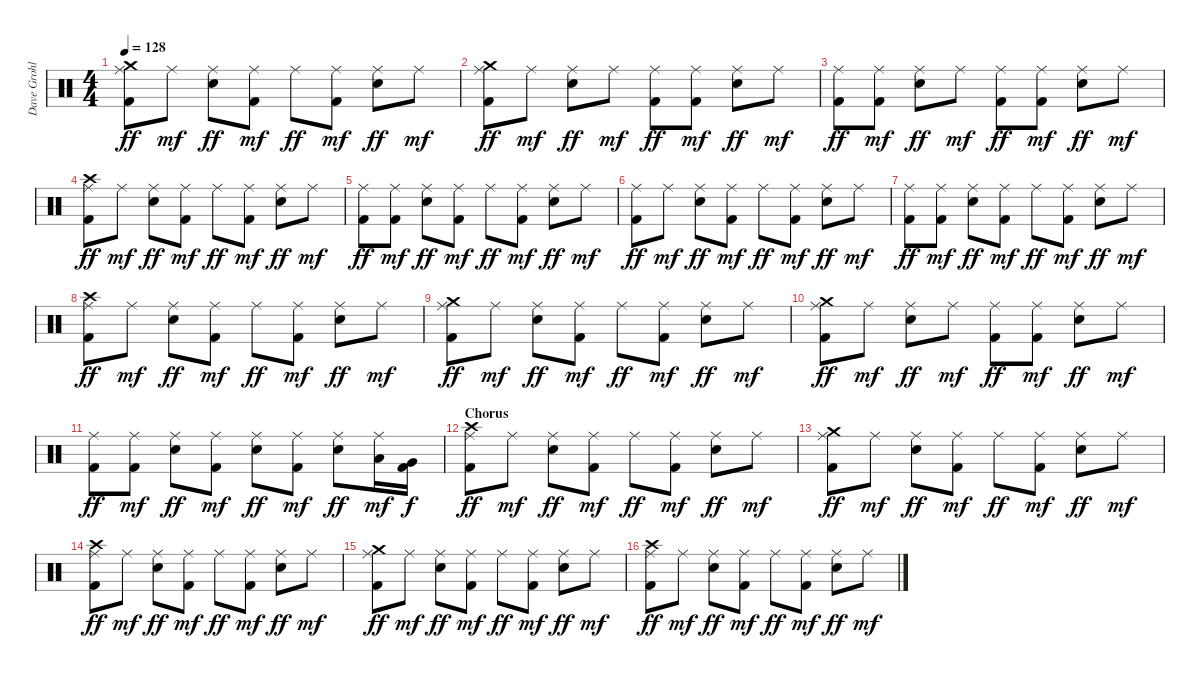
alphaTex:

\track ("Dave Grohl" "Dave Grohl") {instrument percussion}
\staff {score}
\articulation defaults
\ts (4 4)
\tempo 128
\clef neutral
\ks c
("Crash medium (hit)" "Ride (middle)" "Kick (hit) 2").8{dy ff} "Ride (middle)".8{dy mf} ("Ride (middle)" "Snare (hit) 2").8{dy ff} ("Ride (middle)" "Kick (hit) 2").8{dy mf} "Ride (middle)".8{dy ff} ("Ride (middle)" "Kick (hit) 2").8{dy mf} ("Ride (middle)" "Snare (hit) 2").8{dy ff} "Ride (middle)".8{dy mf} |
("Crash medium (hit)" "Ride (middle)" "Kick (hit) 2").8{dy ff} "Ride (middle)".8{dy mf} ("Ride (middle)" "Snare (hit) 2").8{dy ff} "Ride (middle)".8{dy mf} ("Ride (middle)" "Kick (hit) 2").8{dy ff} ("Ride (middle)" "Kick (hit) 2").8{dy mf} ("Ride (middle)" "Snare (hit) 2").8{dy ff} "Ride (middle)".8{dy mf} |
("Ride (middle)" "Kick (hit) 2").8{dy ff} ("Ride (middle)" "Kick (hit) 2").8{dy mf} ("Ride (middle)" "Snare (hit) 2").8{dy ff} "Ride (middle)".8{dy mf} ("Ride (middle)" "Kick (hit) 2").8{dy ff} ("Ride (middle)" "Kick (hit) 2").8{dy mf} ("Ride (middle)" "Snare (hit) 2").8{dy ff} "Ride (middle)".8{dy mf} |
("Crash high (hit)" "Ride (middle)" "Kick (hit) 2").8{dy ff} "Ride (middle)".8{dy mf} ("Ride (middle)" "Snare (hit) 2").8{dy ff} ("Ride (middle)" "Kick (hit) 2").8{dy mf} "Ride (middle)".8{dy ff} ("Ride (middle)" "Kick (hit) 2").8{dy mf} ("Ride (middle)" "Snare (hit) 2").8{dy ff} "Ride (middle)".8{dy mf} |
("Ride (middle)" "Kick (hit) 2").8{dy ff} ("Ride (middle)" "Kick (hit) 2").8{dy mf} ("Ride (middle)" "Snare (hit) 2").8{dy ff} ("Ride (middle)" "Kick (hit) 2").8{dy mf} "Ride (middle)".8{dy ff} ("Ride (middle)" "Kick (hit) 2").8{dy mf} ("Ride (middle)" "Snare (hit) 2").8{dy ff} "Ride (middle)".8{dy mf} |
("Ride (middle)" "Kick (hit) 2").8{dy ff} "Ride (middle)".8{dy mf} ("Ride (middle)" "Snare (hit) 2").8{dy ff} ("Ride (middle)" "Kick (hit) 2").8{dy mf} "Ride (middle)".8{dy ff} ("Ride (middle)" "Kick (hit) 2").8{dy mf} ("Ride (middle)" "Snare (hit) 2").8{dy ff} "Ride (middle)".8{dy mf} |
("Ride (middle)" "Kick (hit) 2").8{dy ff} ("Ride (middle)" "Kick (hit) 2").8{dy mf} ("Ride (middle)" "Snare (hit) 2").8{dy ff} ("Ride (middle)" "Kick (hit) 2").8{dy mf} "Ride (middle)".8{dy ff} ("Ride (middle)" "Kick (hit) 2").8{dy mf} ("Ride (middle)" "Snare (hit) 2").8{dy ff} "Ride (middle)".8{dy mf} |
("Crash high (hit)" "Ride (middle)" "Kick (hit) 2").8{dy ff} "Ride (middle)".8{dy mf} ("Ride (middle)" "Snare (hit) 2").8{dy ff} ("Ride (middle)" "Kick (hit) 2").8{dy mf} "Ride (middle)".8{dy ff} ("Ride (middle)" "Kick (hit) 2").8{dy mf} ("Ride (middle)" "Snare (hit) 2").8{dy ff} "Ride (middle)".8{dy mf} |
("Crash medium (hit)" "Ride (middle)" "Kick (hit) 2").8{dy ff} "Ride (middle)".8{dy mf} ("Ride (middle)" "Snare (hit) 2").8{dy ff} ("Ride (middle)" "Kick (hit) 2").8{dy mf} "Ride (middle)".8{dy ff} ("Ride (middle)" "Kick (hit) 2").8{dy mf} ("Ride (middle)" "Snare (hit) 2").8{dy ff} "Ride (middle)".8{dy mf} |
("Crash medium (hit)" "Ride (middle)" "Kick (hit) 2").8{dy ff} "Ride (middle)".8{dy mf} ("Ride (middle)" "Snare (hit) 2").8{dy ff} "Ride (middle)".8{dy mf} ("Ride (middle)" "Kick (hit) 2").8{dy ff} ("Ride (middle)" "Kick (hit) 2").8{dy mf} ("Ride (middle)" "Snare (hit) 2").8{dy ff} "Ride (middle)".8{dy mf} |
("Ride (middle)" "Kick (hit) 2").8{dy ff} ("Ride (middle)" "Kick (hit) 2").8{dy mf} ("Ride (middle)" "Snare (hit) 2").8{dy ff} ("Ride (middle)" "Kick (hit) 2").8{dy mf} ("Ride (middle)" "Snare (hit) 2").8{dy ff} ("Ride (middle)" "Kick (hit) 2").8{dy mf} ("Ride (middle)" "Snare (hit) 2").8{dy ff} ("Ride (middle)" "Low Tom (hit)").16{dy mf} ("Very Low Tom (hit)" "Kick (hit) 2").16{dy f} |
\section ("" "Chorus")
("Crash high (hit)" "Ride (middle)" "Kick (hit) 2").8{dy ff} "Ride (middle)".8{dy mf} ("Ride (middle)" "Snare (hit) 2").8{dy ff} ("Ride (middle)" "Kick (hit) 2").8{dy mf} "Ride (middle)".8{dy ff} ("Ride (middle)" "Kick (hit) 2").8{dy mf} ("Ride (middle)" "Snare (hit) 2").8{dy ff} "Ride (middle)".8{dy mf} |
("Crash medium (hit)" "Ride (middle)" "Kick (hit) 2").8{dy ff} "Ride (middle)".8{dy mf} ("Ride (middle)" "Snare (hit) 2").8{dy ff} ("Ride (middle)" "Kick (hit) 2").8{dy mf} "Ride (middle)".8{dy ff} ("Ride (middle)" "Kick (hit) 2").8{dy mf} ("Ride (middle)" "Snare (hit) 2").8{dy ff} "Ride (middle)".8{dy mf} |
("Crash high (hit)" "Ride (middle)" "Kick (hit) 2").8{dy ff} "Ride (middle)".8{dy mf} ("Ride (middle)" "Snare (hit) 2").8{dy ff} ("Ride (middle)" "Kick (hit) 2").8{dy mf} "Ride (middle)".8{dy ff} ("Ride (middle)" "Kick (hit) 2").8{dy mf} ("Ride (middle)" "Snare (hit) 2").8{dy ff} "Ride (middle)".8{dy mf} |
("Crash medium (hit)" "Ride (middle)" "Kick (hit) 2").8{dy ff} "Ride (middle)".8{dy mf} ("Ride (middle)" "Snare (hit) 2").8{dy ff} ("Ride (middle)" "Kick (hit) 2").8{dy mf} "Ride (middle)".8{dy ff} ("Ride (middle)" "Kick (hit) 2").8{dy mf} ("Ride (middle)" "Snare (hit) 2").8{dy ff} "Ride (middle)".8{dy mf} |
("Crash high (hit)" "Ride (middle)" "Kick (hit) 2").8{dy ff} "Ride (middle)".8{dy mf} ("Ride (middle)" "Snare (hit) 2").8{dy ff} ("Ride (middle)" "Kick (hit) 2").8{dy mf} "Ride (middle)".8{dy ff} ("Ride (middle)" "Kick (hit) 2").8{dy mf} ("Ride (middle)" "Snare (hit) 2").8{dy ff} "Ride (middle)".8{dy mf}
